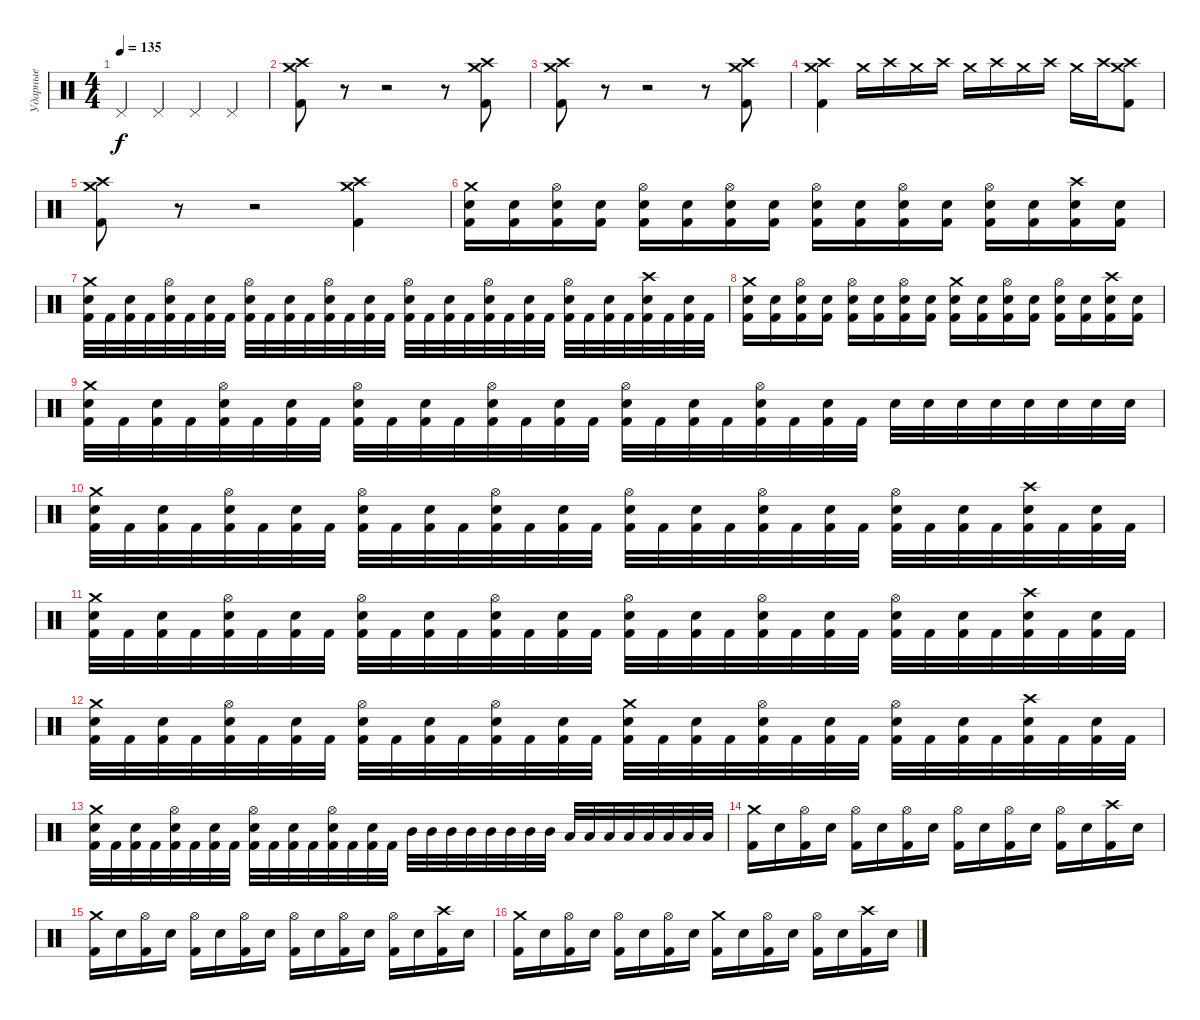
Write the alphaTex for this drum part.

\track ("Ударные" "Ударные") {instrument percussion}
\staff {score}
\articulation defaults
\ts (4 4)
\tempo 135
\clef neutral
\ks c "Pedal Hi-Hat (hit)".4{dy f} "Pedal Hi-Hat (hit)".4 "Pedal Hi-Hat (hit)".4 "Pedal Hi-Hat (hit)".4
|
("Crash medium (hit)" "Crash high (hit)" "Kick (hit) 2").8 r.8 r.2 r.8 ("Crash medium (hit)" "Crash high (hit)" "Kick (hit) 2").8 |
("Crash medium (hit)" "Crash high (hit)" "Kick (hit) 2").8 r.8 r.2 r.8 ("Crash medium (hit)" "Crash high (hit)" "Kick (hit) 2").8 |
("Crash medium (hit)" "Crash high (hit)" "Kick (hit) 2").4 "Crash medium (hit)".16 "Crash high (hit)".16 "Crash medium (hit)".16 "Crash high (hit)".16 "Crash medium (hit)".16 "Crash high (hit)".16 "Crash medium (hit)".16 "Crash high (hit)".16 "Crash medium (hit)".16 "Crash high (hit)".16 ("Crash medium (hit)" "Crash high (hit)" "Kick (hit) 2").8 |
("Crash medium (hit)" "Crash high (hit)" "Kick (hit) 2").8 r.8 r.2 ("Crash medium (hit)" "Crash high (hit)" "Kick (hit) 2").4 |
("Crash medium (hit)" "Electric Snare (hit)" "Kick (hit) 2").16 ("Electric Snare (hit)" "Kick (hit) 2").16 ("Hi-Hat (open)" "Electric Snare (hit)" "Kick (hit) 2").16 ("Electric Snare (hit)" "Kick (hit) 2").16 ("Hi-Hat (open)" "Electric Snare (hit)" "Kick (hit) 2").16 ("Electric Snare (hit)" "Kick (hit) 2").16 ("Hi-Hat (open)" "Electric Snare (hit)" "Kick (hit) 2").16 ("Electric Snare (hit)" "Kick (hit) 2").16 ("Hi-Hat (open)" "Electric Snare (hit)" "Kick (hit) 2").16 ("Electric Snare (hit)" "Kick (hit) 2").16 ("Hi-Hat (open)" "Electric Snare (hit)" "Kick (hit) 2").16 ("Electric Snare (hit)" "Kick (hit) 2").16 ("Hi-Hat (open)" "Electric Snare (hit)" "Kick (hit) 2").16 ("Electric Snare (hit)" "Kick (hit) 2").16 ("Crash high (hit)" "Electric Snare (hit)" "Kick (hit) 2").16 ("Electric Snare (hit)" "Kick (hit) 2").16 |
("Crash medium (hit)" "Electric Snare (hit)" "Kick (hit) 2").32 "Kick (hit) 2".32 ("Electric Snare (hit)" "Kick (hit) 2").32 "Kick (hit) 2".32 ("Hi-Hat (open)" "Electric Snare (hit)" "Kick (hit) 2").32 "Kick (hit) 2".32 ("Electric Snare (hit)" "Kick (hit) 2").32 "Kick (hit) 2".32 ("Hi-Hat (open)" "Electric Snare (hit)" "Kick (hit) 2").32 "Kick (hit) 2".32 ("Electric Snare (hit)" "Kick (hit) 2").32 "Kick (hit) 2".32 ("Hi-Hat (open)" "Electric Snare (hit)" "Kick (hit) 2").32 "Kick (hit) 2".32 ("Electric Snare (hit)" "Kick (hit) 2").32 "Kick (hit) 2".32 ("Hi-Hat (open)" "Electric Snare (hit)" "Kick (hit) 2").32 "Kick (hit) 2".32 ("Electric Snare (hit)" "Kick (hit) 2").32 "Kick (hit) 2".32 ("Hi-Hat (open)" "Electric Snare (hit)" "Kick (hit) 2").32 "Kick (hit) 2".32 ("Electric Snare (hit)" "Kick (hit) 2").32 "Kick (hit) 2".32 ("Hi-Hat (open)" "Electric Snare (hit)" "Kick (hit) 2").32 "Kick (hit) 2".32 ("Electric Snare (hit)" "Kick (hit) 2").32 "Kick (hit) 2".32 ("Crash high (hit)" "Electric Snare (hit)" "Kick (hit) 2").32 "Kick (hit) 2".32 ("Electric Snare (hit)" "Kick (hit) 2").32 "Kick (hit) 2".32 |
("Crash medium (hit)" "Electric Snare (hit)" "Kick (hit) 2").16 ("Electric Snare (hit)" "Kick (hit) 2").16 ("Hi-Hat (open)" "Electric Snare (hit)" "Kick (hit) 2").16 ("Electric Snare (hit)" "Kick (hit) 2").16 ("Hi-Hat (open)" "Electric Snare (hit)" "Kick (hit) 2").16 ("Electric Snare (hit)" "Kick (hit) 2").16 ("Hi-Hat (open)" "Electric Snare (hit)" "Kick (hit) 2").16 ("Electric Snare (hit)" "Kick (hit) 2").16 ("Crash medium (hit)" "Electric Snare (hit)" "Kick (hit) 2").16 ("Electric Snare (hit)" "Kick (hit) 2").16 ("Hi-Hat (open)" "Electric Snare (hit)" "Kick (hit) 2").16 ("Electric Snare (hit)" "Kick (hit) 2").16 ("Hi-Hat (open)" "Electric Snare (hit)" "Kick (hit) 2").16 ("Electric Snare (hit)" "Kick (hit) 2").16 ("Crash high (hit)" "Electric Snare (hit)" "Kick (hit) 2").16 ("Electric Snare (hit)" "Kick (hit) 2").16 |
("Crash medium (hit)" "Electric Snare (hit)" "Kick (hit) 2").32 "Kick (hit) 2".32 ("Electric Snare (hit)" "Kick (hit) 2").32 "Kick (hit) 2".32 ("Hi-Hat (open)" "Electric Snare (hit)" "Kick (hit) 2").32 "Kick (hit) 2".32 ("Electric Snare (hit)" "Kick (hit) 2").32 "Kick (hit) 2".32 ("Hi-Hat (open)" "Electric Snare (hit)" "Kick (hit) 2").32 "Kick (hit) 2".32 ("Electric Snare (hit)" "Kick (hit) 2").32 "Kick (hit) 2".32 ("Hi-Hat (open)" "Electric Snare (hit)" "Kick (hit) 2").32 "Kick (hit) 2".32 ("Electric Snare (hit)" "Kick (hit) 2").32 "Kick (hit) 2".32 ("Hi-Hat (open)" "Electric Snare (hit)" "Kick (hit) 2").32 "Kick (hit) 2".32 ("Electric Snare (hit)" "Kick (hit) 2").32 "Kick (hit) 2".32 ("Hi-Hat (open)" "Electric Snare (hit)" "Kick (hit) 2").32 "Kick (hit) 2".32 ("Electric Snare (hit)" "Kick (hit) 2").32 "Kick (hit) 2".32 "Electric Snare (hit)".32 "Electric Snare (hit)".32 "Electric Snare (hit)".32 "Electric Snare (hit)".32 "Electric Snare (hit)".32 "Electric Snare (hit)".32 "Electric Snare (hit)".32 "Electric Snare (hit)".32 |
("Crash medium (hit)" "Electric Snare (hit)" "Kick (hit) 2").32 "Kick (hit) 2".32 ("Electric Snare (hit)" "Kick (hit) 2").32 "Kick (hit) 2".32 ("Hi-Hat (open)" "Electric Snare (hit)" "Kick (hit) 2").32 "Kick (hit) 2".32 ("Electric Snare (hit)" "Kick (hit) 2").32 "Kick (hit) 2".32 ("Hi-Hat (open)" "Electric Snare (hit)" "Kick (hit) 2").32 "Kick (hit) 2".32 ("Electric Snare (hit)" "Kick (hit) 2").32 "Kick (hit) 2".32 ("Hi-Hat (open)" "Electric Snare (hit)" "Kick (hit) 2").32 "Kick (hit) 2".32 ("Electric Snare (hit)" "Kick (hit) 2").32 "Kick (hit) 2".32 ("Hi-Hat (open)" "Electric Snare (hit)" "Kick (hit) 2").32 "Kick (hit) 2".32 ("Electric Snare (hit)" "Kick (hit) 2").32 "Kick (hit) 2".32 ("Hi-Hat (open)" "Electric Snare (hit)" "Kick (hit) 2").32 "Kick (hit) 2".32 ("Electric Snare (hit)" "Kick (hit) 2").32 "Kick (hit) 2".32 ("Hi-Hat (open)" "Electric Snare (hit)" "Kick (hit) 2").32 "Kick (hit) 2".32 ("Electric Snare (hit)" "Kick (hit) 2").32 "Kick (hit) 2".32 ("Crash high (hit)" "Electric Snare (hit)" "Kick (hit) 2").32 "Kick (hit) 2".32 ("Electric Snare (hit)" "Kick (hit) 2").32 "Kick (hit) 2".32 |
("Crash medium (hit)" "Electric Snare (hit)" "Kick (hit) 2").32 "Kick (hit) 2".32 ("Electric Snare (hit)" "Kick (hit) 2").32 "Kick (hit) 2".32 ("Hi-Hat (open)" "Electric Snare (hit)" "Kick (hit) 2").32 "Kick (hit) 2".32 ("Electric Snare (hit)" "Kick (hit) 2").32 "Kick (hit) 2".32 ("Hi-Hat (open)" "Electric Snare (hit)" "Kick (hit) 2").32 "Kick (hit) 2".32 ("Electric Snare (hit)" "Kick (hit) 2").32 "Kick (hit) 2".32 ("Hi-Hat (open)" "Electric Snare (hit)" "Kick (hit) 2").32 "Kick (hit) 2".32 ("Electric Snare (hit)" "Kick (hit) 2").32 "Kick (hit) 2".32 ("Hi-Hat (open)" "Electric Snare (hit)" "Kick (hit) 2").32 "Kick (hit) 2".32 ("Electric Snare (hit)" "Kick (hit) 2").32 "Kick (hit) 2".32 ("Hi-Hat (open)" "Electric Snare (hit)" "Kick (hit) 2").32 "Kick (hit) 2".32 ("Electric Snare (hit)" "Kick (hit) 2").32 "Kick (hit) 2".32 ("Hi-Hat (open)" "Electric Snare (hit)" "Kick (hit) 2").32 "Kick (hit) 2".32 ("Electric Snare (hit)" "Kick (hit) 2").32 "Kick (hit) 2".32 ("Crash high (hit)" "Electric Snare (hit)" "Kick (hit) 2").32 "Kick (hit) 2".32 ("Electric Snare (hit)" "Kick (hit) 2").32 "Kick (hit) 2".32 |
("Crash medium (hit)" "Electric Snare (hit)" "Kick (hit) 2").32 "Kick (hit) 2".32 ("Electric Snare (hit)" "Kick (hit) 2").32 "Kick (hit) 2".32 ("Hi-Hat (open)" "Electric Snare (hit)" "Kick (hit) 2").32 "Kick (hit) 2".32 ("Electric Snare (hit)" "Kick (hit) 2").32 "Kick (hit) 2".32 ("Hi-Hat (open)" "Electric Snare (hit)" "Kick (hit) 2").32 "Kick (hit) 2".32 ("Electric Snare (hit)" "Kick (hit) 2").32 "Kick (hit) 2".32 ("Hi-Hat (open)" "Electric Snare (hit)" "Kick (hit) 2").32 "Kick (hit) 2".32 ("Electric Snare (hit)" "Kick (hit) 2").32 "Kick (hit) 2".32 ("Crash medium (hit)" "Electric Snare (hit)" "Kick (hit) 2").32 "Kick (hit) 2".32 ("Electric Snare (hit)" "Kick (hit) 2").32 "Kick (hit) 2".32 ("Hi-Hat (open)" "Electric Snare (hit)" "Kick (hit) 2").32 "Kick (hit) 2".32 ("Electric Snare (hit)" "Kick (hit) 2").32 "Kick (hit) 2".32 ("Hi-Hat (open)" "Electric Snare (hit)" "Kick (hit) 2").32 "Kick (hit) 2".32 ("Electric Snare (hit)" "Kick (hit) 2").32 "Kick (hit) 2".32 ("Crash high (hit)" "Electric Snare (hit)" "Kick (hit) 2").32 "Kick (hit) 2".32 ("Electric Snare (hit)" "Kick (hit) 2").32 "Kick (hit) 2".32 |
("Crash medium (hit)" "Electric Snare (hit)" "Kick (hit) 2").32 "Kick (hit) 2".32 ("Electric Snare (hit)" "Kick (hit) 2").32 "Kick (hit) 2".32 ("Hi-Hat (open)" "Electric Snare (hit)" "Kick (hit) 2").32 "Kick (hit) 2".32 ("Electric Snare (hit)" "Kick (hit) 2").32 "Kick (hit) 2".32 ("Hi-Hat (open)" "Electric Snare (hit)" "Kick (hit) 2").32 "Kick (hit) 2".32 ("Electric Snare (hit)" "Kick (hit) 2").32 "Kick (hit) 2".32 ("Hi-Hat (open)" "Electric Snare (hit)" "Kick (hit) 2").32 "Kick (hit) 2".32 ("Electric Snare (hit)" "Kick (hit) 2").32 "Kick (hit) 2".32 "Mid Tom (hit)".32 "Mid Tom (hit)".32 "Mid Tom (hit)".32 "Mid Tom (hit)".32 "Mid Tom (hit)".32 "Mid Tom (hit)".32 "Mid Tom (hit)".32 "Mid Tom (hit)".32 "Low Tom (hit)".32 "Low Tom (hit)".32 "Low Tom (hit)".32 "Low Tom (hit)".32 "Low Tom (hit)".32 "Low Tom (hit)".32 "Low Tom (hit)".32 "Low Tom (hit)".32 |
("Crash medium (hit)" "Kick (hit) 2").16 "Electric Snare (hit)".16 ("Hi-Hat (open)" "Kick (hit) 2").16 "Electric Snare (hit)".16 ("Hi-Hat (open)" "Kick (hit) 2").16 "Electric Snare (hit)".16 ("Hi-Hat (open)" "Kick (hit) 2").16 "Electric Snare (hit)".16 ("Hi-Hat (open)" "Kick (hit) 2").16 "Electric Snare (hit)".16 ("Hi-Hat (open)" "Kick (hit) 2").16 "Electric Snare (hit)".16 ("Hi-Hat (open)" "Kick (hit) 2").16 "Electric Snare (hit)".16 ("Crash high (hit)" "Kick (hit) 2").16 "Electric Snare (hit)".16 |
("Crash medium (hit)" "Kick (hit) 2").16 "Electric Snare (hit)".16 ("Hi-Hat (open)" "Kick (hit) 2").16 "Electric Snare (hit)".16 ("Hi-Hat (open)" "Kick (hit) 2").16 "Electric Snare (hit)".16 ("Hi-Hat (open)" "Kick (hit) 2").16 "Electric Snare (hit)".16 ("Hi-Hat (open)" "Kick (hit) 2").16 "Electric Snare (hit)".16 ("Hi-Hat (open)" "Kick (hit) 2").16 "Electric Snare (hit)".16 ("Hi-Hat (open)" "Kick (hit) 2").16 "Electric Snare (hit)".16 ("Crash high (hit)" "Kick (hit) 2").16 "Electric Snare (hit)".16 |
("Crash medium (hit)" "Kick (hit) 2").16 "Electric Snare (hit)".16 ("Hi-Hat (open)" "Kick (hit) 2").16 "Electric Snare (hit)".16 ("Hi-Hat (open)" "Kick (hit) 2").16 "Electric Snare (hit)".16 ("Hi-Hat (open)" "Kick (hit) 2").16 "Electric Snare (hit)".16 ("Crash medium (hit)" "Kick (hit) 2").16 "Electric Snare (hit)".16 ("Hi-Hat (open)" "Kick (hit) 2").16 "Electric Snare (hit)".16 ("Hi-Hat (open)" "Kick (hit) 2").16 "Electric Snare (hit)".16 ("Crash high (hit)" "Kick (hit) 2").16 "Electric Snare (hit)".16
